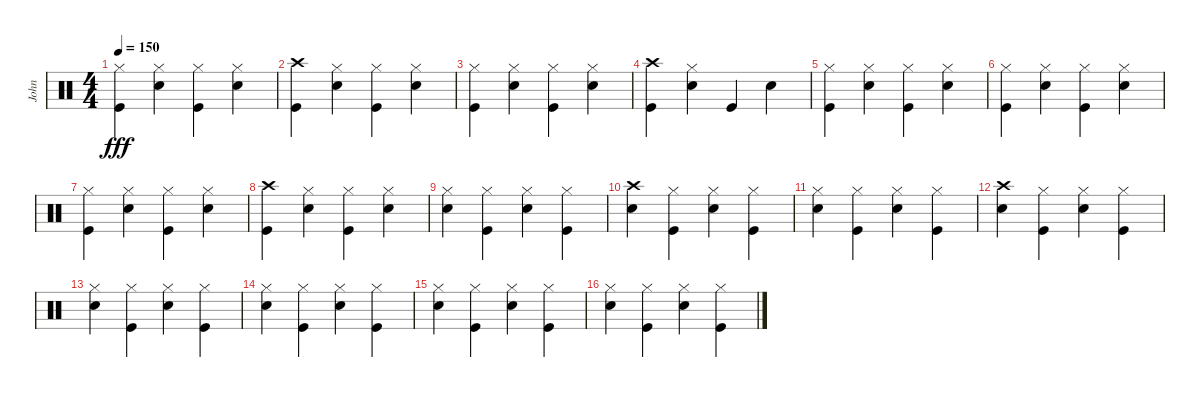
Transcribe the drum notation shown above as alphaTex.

\track ("John" "John") {instrument percussion}
\staff {score}
\articulation defaults
\ts (4 4)
\tempo 150
\clef neutral
\ks c
("Hi-Hat (closed)" "Kick (hit)").4{dy fff} ("Hi-Hat (closed)" "Snare (hit) 2").4 ("Hi-Hat (closed)" "Kick (hit)").4 ("Hi-Hat (closed)" "Snare (hit) 2").4 |
("Crash high (hit)" "Kick (hit)").4 ("Hi-Hat (closed)" "Snare (hit) 2").4 ("Hi-Hat (closed)" "Kick (hit)").4 ("Hi-Hat (closed)" "Snare (hit) 2").4 |
("Hi-Hat (closed)" "Kick (hit)").4 ("Hi-Hat (closed)" "Snare (hit) 2").4 ("Hi-Hat (closed)" "Kick (hit)").4 ("Hi-Hat (closed)" "Snare (hit) 2").4 |
("Crash high (hit)" "Kick (hit)").4 ("Hi-Hat (closed)" "Snare (hit) 2").4 "Kick (hit)".4 "Snare (hit) 2".4 |
("Kick (hit)" "Hi-Hat (closed)").4 ("Hi-Hat (closed)" "Snare (hit) 2").4 ("Hi-Hat (closed)" "Kick (hit)").4 ("Hi-Hat (closed)" "Snare (hit) 2").4 |
("Hi-Hat (closed)" "Kick (hit)").4 ("Hi-Hat (closed)" "Snare (hit) 2").4 ("Hi-Hat (closed)" "Kick (hit)").4 ("Hi-Hat (closed)" "Snare (hit) 2").4 |
("Hi-Hat (closed)" "Kick (hit)").4 ("Hi-Hat (closed)" "Snare (hit) 2").4 ("Hi-Hat (closed)" "Kick (hit)").4 ("Hi-Hat (closed)" "Snare (hit) 2").4 |
("Crash high (hit)" "Kick (hit)").4 ("Hi-Hat (closed)" "Snare (hit) 2").4 ("Hi-Hat (closed)" "Kick (hit)").4 ("Hi-Hat (closed)" "Snare (hit) 2").4 |
("Hi-Hat (closed)" "Snare (hit) 2").4 ("Hi-Hat (closed)" "Kick (hit)").4 ("Hi-Hat (closed)" "Snare (hit) 2").4 ("Hi-Hat (closed)" "Kick (hit)").4 |
("Crash high (hit)" "Snare (hit) 2").4 ("Hi-Hat (closed)" "Kick (hit)").4 ("Hi-Hat (closed)" "Snare (hit) 2").4 ("Hi-Hat (closed)" "Kick (hit)").4 |
("Hi-Hat (closed)" "Snare (hit) 2").4 ("Hi-Hat (closed)" "Kick (hit)").4 ("Hi-Hat (closed)" "Snare (hit) 2").4 ("Hi-Hat (closed)" "Kick (hit)").4 |
("Crash high (hit)" "Snare (hit) 2").4 ("Hi-Hat (closed)" "Kick (hit)").4 ("Hi-Hat (closed)" "Snare (hit) 2").4 ("Hi-Hat (closed)" "Kick (hit)").4 |
("Hi-Hat (closed)" "Snare (hit) 2").4 ("Hi-Hat (closed)" "Kick (hit)").4 ("Hi-Hat (closed)" "Snare (hit) 2").4 ("Hi-Hat (closed)" "Kick (hit)").4 |
("Hi-Hat (closed)" "Snare (hit) 2").4 ("Hi-Hat (closed)" "Kick (hit)").4 ("Hi-Hat (closed)" "Snare (hit) 2").4 ("Hi-Hat (closed)" "Kick (hit)").4 |
("Hi-Hat (closed)" "Snare (hit) 2").4 ("Hi-Hat (closed)" "Kick (hit)").4 ("Hi-Hat (closed)" "Snare (hit) 2").4 ("Hi-Hat (closed)" "Kick (hit)").4 |
("Hi-Hat (closed)" "Snare (hit) 2").4 ("Hi-Hat (closed)" "Kick (hit)").4 ("Hi-Hat (closed)" "Snare (hit) 2").4 ("Hi-Hat (closed)" "Kick (hit)").4
